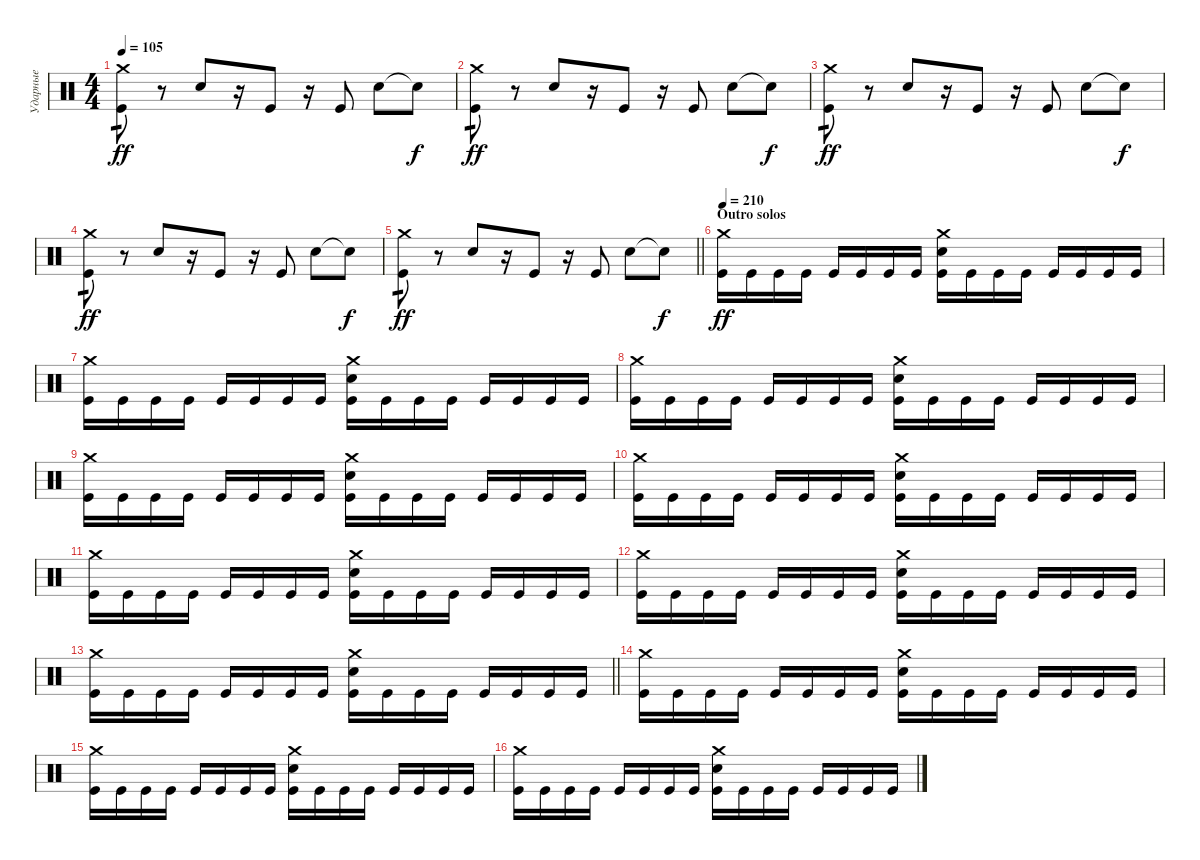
\track ("Ударные" "Ударные") {instrument percussion}
\staff {score}
\articulation defaults
\ts (4 4)
\tempo 105
\clef neutral
\ks c
("Crash medium (hit)" "Kick (hit)").8{tp 1 dy ff} r.8 "Electric Snare (hit)".8 r.16 "Kick (hit)".8 r.16 "Kick (hit)".8 "Electric Snare (hit)".8 "Snare (hit)"{t}.8{dy f} |
("Crash medium (hit)" "Kick (hit)").8{tp 1 dy ff} r.8 "Electric Snare (hit)".8 r.16 "Kick (hit)".8 r.16 "Kick (hit)".8 "Electric Snare (hit)".8 "Snare (hit)"{t}.8{dy f} |
("Crash medium (hit)" "Kick (hit)").8{tp 1 dy ff} r.8 "Electric Snare (hit)".8 r.16 "Kick (hit)".8 r.16 "Kick (hit)".8 "Electric Snare (hit)".8 "Snare (hit)"{t}.8{dy f} |
("Crash medium (hit)" "Kick (hit)").8{tp 1 dy ff} r.8 "Electric Snare (hit)".8 r.16 "Kick (hit)".8 r.16 "Kick (hit)".8 "Electric Snare (hit)".8 "Snare (hit)"{t}.8{dy f} |
\barLineRight lightlight
("Crash medium (hit)" "Kick (hit)").8{tp 1 dy ff} r.8 "Electric Snare (hit)".8 r.16 "Kick (hit)".8 r.16 "Kick (hit)".8 "Electric Snare (hit)".8 "Snare (hit)"{t}.8{dy f} |
\section ("" "Outro solos")
\tempo 210
("Crash medium (hit)" "Kick (hit)").16{dy ff} "Kick (hit)".16 "Kick (hit)".16 "Kick (hit)".16 "Kick (hit)".16 "Kick (hit)".16 "Kick (hit)".16 "Kick (hit)".16 ("Crash medium (hit)" "Electric Snare (hit)" "Kick (hit)").16 "Kick (hit)".16 "Kick (hit)".16 "Kick (hit)".16 "Kick (hit)".16 "Kick (hit)".16 "Kick (hit)".16 "Kick (hit)".16 |
("Crash medium (hit)" "Kick (hit)").16 "Kick (hit)".16 "Kick (hit)".16 "Kick (hit)".16 "Kick (hit)".16 "Kick (hit)".16 "Kick (hit)".16 "Kick (hit)".16 ("Crash medium (hit)" "Electric Snare (hit)" "Kick (hit)").16 "Kick (hit)".16 "Kick (hit)".16 "Kick (hit)".16 "Kick (hit)".16 "Kick (hit)".16 "Kick (hit)".16 "Kick (hit)".16 |
("Crash medium (hit)" "Kick (hit)").16 "Kick (hit)".16 "Kick (hit)".16 "Kick (hit)".16 "Kick (hit)".16 "Kick (hit)".16 "Kick (hit)".16 "Kick (hit)".16 ("Crash medium (hit)" "Electric Snare (hit)" "Kick (hit)").16 "Kick (hit)".16 "Kick (hit)".16 "Kick (hit)".16 "Kick (hit)".16 "Kick (hit)".16 "Kick (hit)".16 "Kick (hit)".16 |
("Crash medium (hit)" "Kick (hit)").16 "Kick (hit)".16 "Kick (hit)".16 "Kick (hit)".16 "Kick (hit)".16 "Kick (hit)".16 "Kick (hit)".16 "Kick (hit)".16 ("Crash medium (hit)" "Electric Snare (hit)" "Kick (hit)").16 "Kick (hit)".16 "Kick (hit)".16 "Kick (hit)".16 "Kick (hit)".16 "Kick (hit)".16 "Kick (hit)".16 "Kick (hit)".16 |
("Crash medium (hit)" "Kick (hit)").16 "Kick (hit)".16 "Kick (hit)".16 "Kick (hit)".16 "Kick (hit)".16 "Kick (hit)".16 "Kick (hit)".16 "Kick (hit)".16 ("Crash medium (hit)" "Electric Snare (hit)" "Kick (hit)").16 "Kick (hit)".16 "Kick (hit)".16 "Kick (hit)".16 "Kick (hit)".16 "Kick (hit)".16 "Kick (hit)".16 "Kick (hit)".16 |
("Crash medium (hit)" "Kick (hit)").16 "Kick (hit)".16 "Kick (hit)".16 "Kick (hit)".16 "Kick (hit)".16 "Kick (hit)".16 "Kick (hit)".16 "Kick (hit)".16 ("Crash medium (hit)" "Electric Snare (hit)" "Kick (hit)").16 "Kick (hit)".16 "Kick (hit)".16 "Kick (hit)".16 "Kick (hit)".16 "Kick (hit)".16 "Kick (hit)".16 "Kick (hit)".16 |
("Crash medium (hit)" "Kick (hit)").16 "Kick (hit)".16 "Kick (hit)".16 "Kick (hit)".16 "Kick (hit)".16 "Kick (hit)".16 "Kick (hit)".16 "Kick (hit)".16 ("Crash medium (hit)" "Electric Snare (hit)" "Kick (hit)").16 "Kick (hit)".16 "Kick (hit)".16 "Kick (hit)".16 "Kick (hit)".16 "Kick (hit)".16 "Kick (hit)".16 "Kick (hit)".16 |
\barLineRight lightlight
("Crash medium (hit)" "Kick (hit)").16 "Kick (hit)".16 "Kick (hit)".16 "Kick (hit)".16 "Kick (hit)".16 "Kick (hit)".16 "Kick (hit)".16 "Kick (hit)".16 ("Crash medium (hit)" "Electric Snare (hit)" "Kick (hit)").16 "Kick (hit)".16 "Kick (hit)".16 "Kick (hit)".16 "Kick (hit)".16 "Kick (hit)".16 "Kick (hit)".16 "Kick (hit)".16 |
\section ("" "")
("Crash medium (hit)" "Kick (hit)").16 "Kick (hit)".16 "Kick (hit)".16 "Kick (hit)".16 "Kick (hit)".16 "Kick (hit)".16 "Kick (hit)".16 "Kick (hit)".16 ("Crash medium (hit)" "Electric Snare (hit)" "Kick (hit)").16 "Kick (hit)".16 "Kick (hit)".16 "Kick (hit)".16 "Kick (hit)".16 "Kick (hit)".16 "Kick (hit)".16 "Kick (hit)".16 |
("Crash medium (hit)" "Kick (hit)").16 "Kick (hit)".16 "Kick (hit)".16 "Kick (hit)".16 "Kick (hit)".16 "Kick (hit)".16 "Kick (hit)".16 "Kick (hit)".16 ("Crash medium (hit)" "Electric Snare (hit)" "Kick (hit)").16 "Kick (hit)".16 "Kick (hit)".16 "Kick (hit)".16 "Kick (hit)".16 "Kick (hit)".16 "Kick (hit)".16 "Kick (hit)".16 |
("Crash medium (hit)" "Kick (hit)").16 "Kick (hit)".16 "Kick (hit)".16 "Kick (hit)".16 "Kick (hit)".16 "Kick (hit)".16 "Kick (hit)".16 "Kick (hit)".16 ("Crash medium (hit)" "Electric Snare (hit)" "Kick (hit)").16 "Kick (hit)".16 "Kick (hit)".16 "Kick (hit)".16 "Kick (hit)".16 "Kick (hit)".16 "Kick (hit)".16 "Kick (hit)".16
